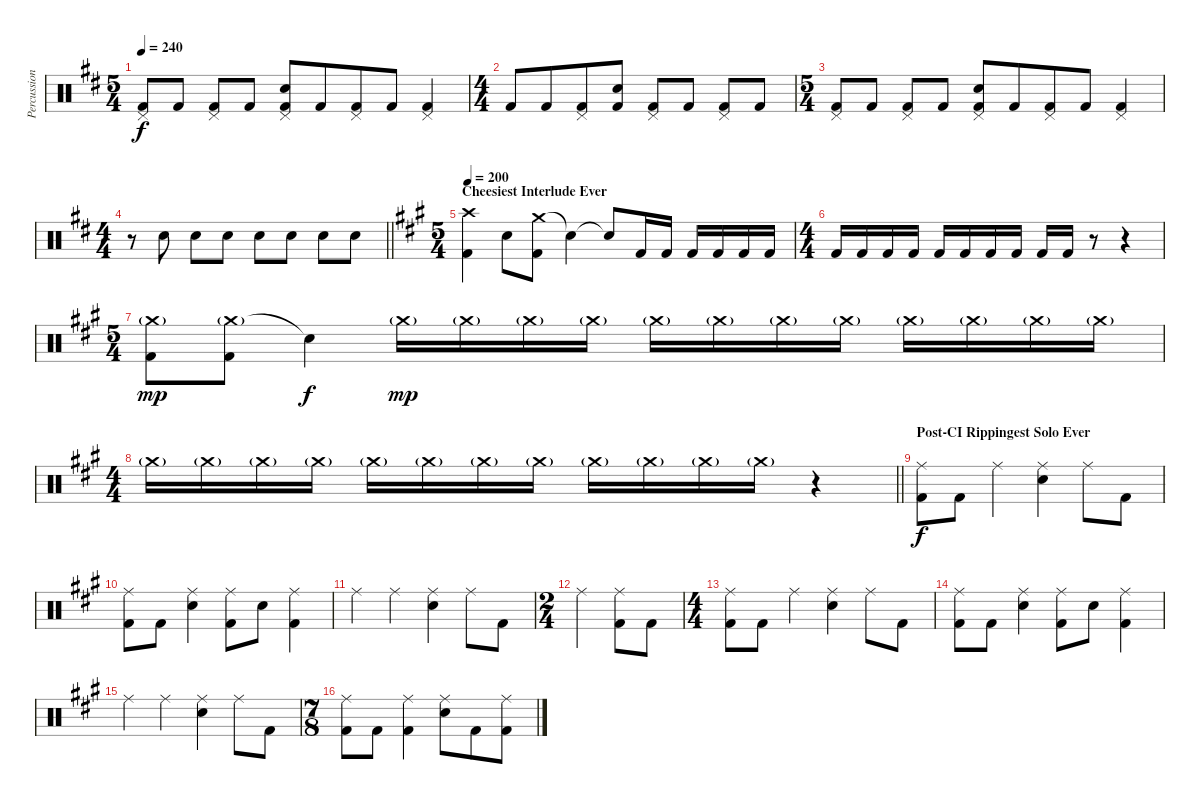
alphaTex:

\track ("Percussion" "Percussion") {instrument percussion}
\staff {score}
\articulation defaults
\ts (5 4)
\tempo 240
\clef neutral
\ks bminor
("Pedal Hi-Hat (hit)" "Kick (hit) 2").8{dy f} "Kick (hit) 2".8 ("Pedal Hi-Hat (hit)" "Kick (hit) 2").8 "Kick (hit) 2".8 ("Pedal Hi-Hat (hit)" "Electric Snare (hit)" "Kick (hit) 2").8 "Kick (hit) 2".8{beam merge} ("Pedal Hi-Hat (hit)" "Kick (hit) 2").8 "Kick (hit) 2".8 ("Pedal Hi-Hat (hit)" "Kick (hit) 2").4 |
\ts (4 4)
"Kick (hit) 2".8 "Kick (hit) 2".8{beam merge} ("Pedal Hi-Hat (hit)" "Kick (hit) 2").8 ("Electric Snare (hit)" "Kick (hit) 2").8 ("Pedal Hi-Hat (hit)" "Kick (hit) 2").8 "Kick (hit) 2".8 ("Pedal Hi-Hat (hit)" "Kick (hit) 2").8 "Kick (hit) 2".8 |
\ts (5 4)
("Pedal Hi-Hat (hit)" "Kick (hit) 2").8 "Kick (hit) 2".8 ("Pedal Hi-Hat (hit)" "Kick (hit) 2").8 "Kick (hit) 2".8 ("Pedal Hi-Hat (hit)" "Electric Snare (hit)" "Kick (hit) 2").8 "Kick (hit) 2".8{beam merge} ("Pedal Hi-Hat (hit)" "Kick (hit) 2").8 "Kick (hit) 2".8 ("Pedal Hi-Hat (hit)" "Kick (hit) 2").4 |
\ts (4 4)
\barLineRight lightlight
r.8 "Electric Snare (hit)".8 "Electric Snare (hit)".8 "Electric Snare (hit)".8 "Electric Snare (hit)".8 "Electric Snare (hit)".8 "Electric Snare (hit)".8 "Electric Snare (hit)".8 |
\ts (5 4)
\section ("" "Cheesiest Interlude Ever")
\tempo 200
\ks f#minor
("Crash high (hit)" "Kick (hit) 2").4 "Electric Snare (hit)".8 ("Crash medium (hit)" "Kick (hit) 2").8 "Snare (hit)"{t}.4 "Snare (hit)"{t}.8 "Kick (hit) 2".16 "Kick (hit) 2".16 "Kick (hit) 2".16 "Kick (hit) 2".16 "Kick (hit) 2".16 "Kick (hit) 2".16 |
\ts (4 4)
"Kick (hit) 2".16 "Kick (hit) 2".16 "Kick (hit) 2".16 "Kick (hit) 2".16 "Kick (hit) 2".16 "Kick (hit) 2".16 "Kick (hit) 2".16 "Kick (hit) 2".16 "Kick (hit) 2".16 "Kick (hit) 2".16 r.8 r.4 |
\ts (5 4)
("Crash medium (hit)"{g} "Kick (hit) 2").8{dy mp} ("Crash medium (hit)"{g} "Kick (hit) 2").8 "Snare (hit)"{t}.4{dy f} "Crash medium (hit)"{g}.16{dy mp} "Crash medium (hit)"{g}.16 "Crash medium (hit)"{g}.16 "Crash medium (hit)"{g}.16 "Crash medium (hit)"{g}.16 "Crash medium (hit)"{g}.16 "Crash medium (hit)"{g}.16 "Crash medium (hit)"{g}.16 "Crash medium (hit)"{g}.16 "Crash medium (hit)"{g}.16 "Crash medium (hit)"{g}.16 "Crash medium (hit)"{g}.16 |
\ts (4 4)
\barLineRight lightlight "Crash medium (hit)"{g}.16 "Crash medium (hit)"{g}.16 "Crash medium (hit)"{g}.16 "Crash medium (hit)"{g}.16 "Crash medium (hit)"{g}.16 "Crash medium (hit)"{g}.16 "Crash medium (hit)"{g}.16 "Crash medium (hit)"{g}.16 "Crash medium (hit)"{g}.16 "Crash medium (hit)"{g}.16 "Crash medium (hit)"{g}.16 "Crash medium (hit)"{g}.16
r.4 |
\section ("" "Post-CI Rippingest Solo Ever")
("Ride (middle)" "Kick (hit) 2").8{dy f} "Kick (hit) 2".8{beam merge} "Ride (middle)".4 ("Ride (middle)" "Electric Snare (hit)").4{beam merge} "Ride (middle)".8 "Kick (hit) 2".8 |
("Ride (middle)" "Kick (hit) 2").8 "Kick (hit) 2".8{beam merge} ("Ride (middle)" "Electric Snare (hit)").4 ("Ride (middle)" "Kick (hit) 2").8 "Electric Snare (hit)".8 ("Ride (middle)" "Kick (hit) 2").4 |
"Ride (middle)".4 "Ride (middle)".4 ("Ride (middle)" "Electric Snare (hit)").4{beam merge} "Ride (middle)".8 "Kick (hit) 2".8 |
\ts (2 4)
"Ride (middle)".4{beam merge} ("Ride (middle)" "Kick (hit) 2").8 "Kick (hit) 2".8 |
\ts (4 4)
("Ride (middle)" "Kick (hit) 2").8 "Kick (hit) 2".8 "Ride (middle)".4 ("Ride (middle)" "Electric Snare (hit)").4 "Ride (middle)".8 "Kick (hit) 2".8 |
("Ride (middle)" "Kick (hit) 2").8 "Kick (hit) 2".8 ("Ride (middle)" "Electric Snare (hit)").4 ("Ride (middle)" "Kick (hit) 2").8 "Electric Snare (hit)".8 ("Ride (middle)" "Kick (hit) 2").4 |
"Ride (middle)".4 "Ride (middle)".4 ("Ride (middle)" "Electric Snare (hit)").4{beam merge} "Ride (middle)".8 "Kick (hit) 2".8 |
\ts (7 8)
("Ride (middle)" "Kick (hit) 2").8{beam merge} "Kick (hit) 2".8 ("Ride (middle)" "Kick (hit) 2").4 ("Ride (middle)" "Electric Snare (hit)").8 "Kick (hit) 2".8 ("Ride (middle)" "Kick (hit) 2").8
